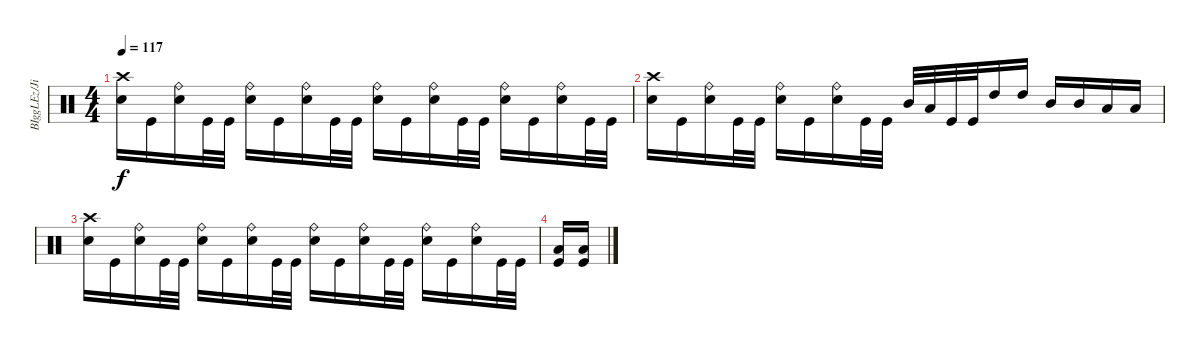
\track ("BIggLEz/Jimmy" "BIggLEz/Ji") {instrument percussion}
\staff {score}
\articulation defaults
\ts (4 4)
\tempo 117
\clef neutral
\ks c
("Snare (hit) 2" "Crash high (hit)").16{dy f} "Kick (hit)".16 ("Snare (hit) 2" "Ride (bell)").16 "Kick (hit)".32 "Kick (hit)".32 ("Snare (hit) 2" "Ride (bell)").16 "Kick (hit)".16 ("Snare (hit) 2" "Ride (bell)").16 "Kick (hit)".32 "Kick (hit)".32 ("Snare (hit) 2" "Ride (bell)").16 "Kick (hit)".16 ("Snare (hit) 2" "Ride (bell)").16 "Kick (hit)".32 "Kick (hit)".32 ("Snare (hit) 2" "Ride (bell)").16 "Kick (hit)".16 ("Snare (hit) 2" "Ride (bell)").16 "Kick (hit)".32 "Kick (hit)".32 |
("Snare (hit) 2" "Crash high (hit)").16 "Kick (hit)".16 ("Snare (hit) 2" "Ride (bell)").16 "Kick (hit)".32 "Kick (hit)".32 ("Snare (hit) 2" "Ride (bell)").16 "Kick (hit)".16 ("Snare (hit) 2" "Ride (bell)").16 "Kick (hit)".32 "Kick (hit)".32 "Mid Tom (hit)".32 "Low Tom (hit)".32 "Kick (hit)".32 "Kick (hit)".32 "High Tom (hit)".16 "High Tom (hit)".16 "Mid Tom (hit)".16 "Mid Tom (hit)".16 "Low Tom (hit)".16 "Low Tom (hit)".16 |
("Snare (hit) 2" "Crash high (hit)").16 "Kick (hit)".16 ("Snare (hit) 2" "Ride (bell)").16 "Kick (hit)".32 "Kick (hit)".32 ("Snare (hit) 2" "Ride (bell)").16 "Kick (hit)".16 ("Snare (hit) 2" "Ride (bell)").16 "Kick (hit)".32 "Kick (hit)".32 ("Snare (hit) 2" "Ride (bell)").16 "Kick (hit)".16 ("Snare (hit) 2" "Ride (bell)").16 "Kick (hit)".32 "Kick (hit)".32 ("Snare (hit) 2" "Ride (bell)").16 "Kick (hit)".16 ("Snare (hit) 2" "Ride (bell)").16 "Kick (hit)".32 "Kick (hit)".32 |
("Kick (hit)" "Low Floor Tom (hit)").16 ("Kick (hit)" "Low Floor Tom (hit)").16
